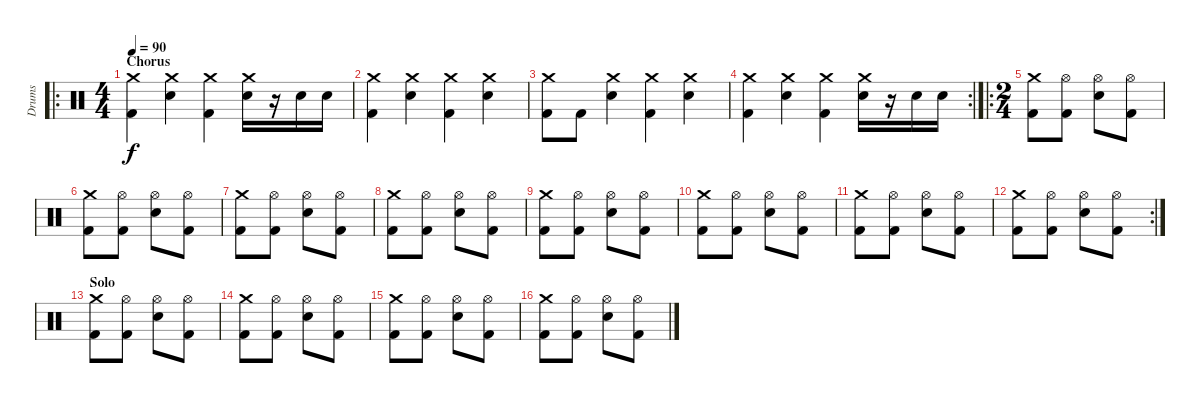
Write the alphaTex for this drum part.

\track ("Drums" "Drums") {instrument percussion}
\staff {score}
\articulation defaults
\ro
\ts (4 4)
\section ("" "Chorus")
\tempo 90
\clef neutral
\ks c
("Crash medium (hit)" "Kick (hit) 2").4{dy f} ("Crash medium (hit)" "Snare (hit) 2").4 ("Crash medium (hit)" "Kick (hit) 2").4 ("Crash medium (hit)" "Snare (hit) 2").16 r.16 "Snare (hit) 2".16 "Snare (hit) 2".16 |
("Crash medium (hit)" "Kick (hit) 2").4 ("Crash medium (hit)" "Snare (hit) 2").4 ("Crash medium (hit)" "Kick (hit) 2").4 ("Crash medium (hit)" "Snare (hit) 2").4 |
("Crash medium (hit)" "Kick (hit) 2").8 "Kick (hit) 2".8 ("Crash medium (hit)" "Snare (hit) 2").4 ("Crash medium (hit)" "Kick (hit) 2").4 ("Crash medium (hit)" "Snare (hit) 2").4 |
\rc 2
("Crash medium (hit)" "Kick (hit) 2").4 ("Crash medium (hit)" "Snare (hit) 2").4 ("Crash medium (hit)" "Kick (hit) 2").4 ("Crash medium (hit)" "Snare (hit) 2").16 r.16 "Snare (hit) 2".16 "Snare (hit) 2".16 |
\ro
\ts (2 4)
("Crash medium (hit)" "Kick (hit) 2").8 ("Hi-Hat (open)" "Kick (hit) 2").8 ("Hi-Hat (open)" "Snare (hit) 2").8 ("Hi-Hat (open)" "Kick (hit) 2").8 |
("Crash medium (hit)" "Kick (hit) 2").8 ("Hi-Hat (open)" "Kick (hit) 2").8 ("Hi-Hat (open)" "Snare (hit) 2").8 ("Hi-Hat (open)" "Kick (hit) 2").8 |
("Crash medium (hit)" "Kick (hit) 2").8 ("Hi-Hat (open)" "Kick (hit) 2").8 ("Hi-Hat (open)" "Snare (hit) 2").8 ("Hi-Hat (open)" "Kick (hit) 2").8 |
("Crash medium (hit)" "Kick (hit) 2").8 ("Hi-Hat (open)" "Kick (hit) 2").8 ("Hi-Hat (open)" "Snare (hit) 2").8 ("Hi-Hat (open)" "Kick (hit) 2").8 |
("Crash medium (hit)" "Kick (hit) 2").8 ("Hi-Hat (open)" "Kick (hit) 2").8 ("Hi-Hat (open)" "Snare (hit) 2").8 ("Hi-Hat (open)" "Kick (hit) 2").8 |
("Crash medium (hit)" "Kick (hit) 2").8 ("Hi-Hat (open)" "Kick (hit) 2").8 ("Hi-Hat (open)" "Snare (hit) 2").8 ("Hi-Hat (open)" "Kick (hit) 2").8 |
("Crash medium (hit)" "Kick (hit) 2").8 ("Hi-Hat (open)" "Kick (hit) 2").8 ("Hi-Hat (open)" "Snare (hit) 2").8 ("Hi-Hat (open)" "Kick (hit) 2").8 |
\rc 2
("Crash medium (hit)" "Kick (hit) 2").8 ("Hi-Hat (open)" "Kick (hit) 2").8 ("Hi-Hat (open)" "Snare (hit) 2").8 ("Hi-Hat (open)" "Kick (hit) 2").8 |
\section ("" "Solo")
("Crash medium (hit)" "Kick (hit) 2").8 ("Hi-Hat (open)" "Kick (hit) 2").8 ("Hi-Hat (open)" "Snare (hit) 2").8 ("Hi-Hat (open)" "Kick (hit) 2").8 |
("Crash medium (hit)" "Kick (hit) 2").8 ("Hi-Hat (open)" "Kick (hit) 2").8 ("Hi-Hat (open)" "Snare (hit) 2").8 ("Hi-Hat (open)" "Kick (hit) 2").8 |
("Crash medium (hit)" "Kick (hit) 2").8 ("Hi-Hat (open)" "Kick (hit) 2").8 ("Hi-Hat (open)" "Snare (hit) 2").8 ("Hi-Hat (open)" "Kick (hit) 2").8 |
("Crash medium (hit)" "Kick (hit) 2").8 ("Hi-Hat (open)" "Kick (hit) 2").8 ("Hi-Hat (open)" "Snare (hit) 2").8 ("Hi-Hat (open)" "Kick (hit) 2").8
